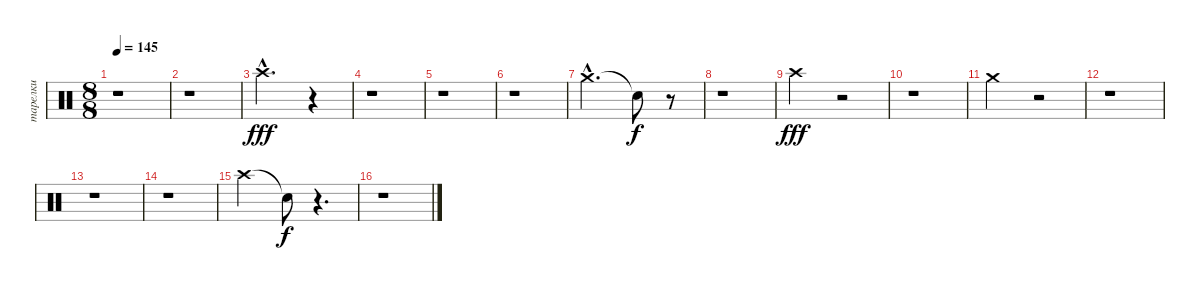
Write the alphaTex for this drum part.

\track ("тарелки" "тарелки") {instrument percussion}
\staff {score}
\articulation defaults
\ts (8 8)
\tempo 145
\clef neutral
\ks c
r.1{dy fff} |
r.1 |
"Crash high (hit)"{hac}.2{d} r.4 |
r.1 |
r.1 |
r.1 |
"Crash medium (hit)"{hac}.2{d} "Snare (hit)"{t}.8{dy f} r.8 |
r.1 |
"Crash high (hit)".2{dy fff} r.2 |
r.1 |
"Crash medium (hit)".2 r.2 |
r.1 |
r.1 |
r.1 |
"Crash high (hit)".2 "Snare (hit)"{t}.8{dy f} r.4{d} |
r.1
